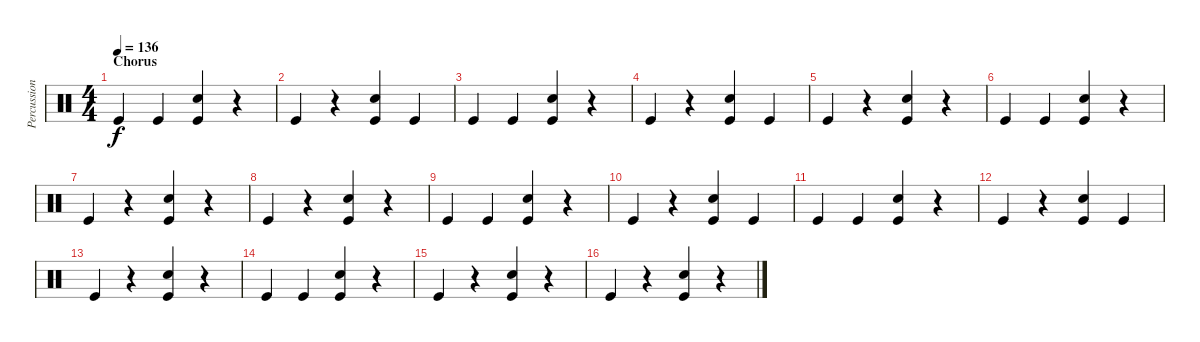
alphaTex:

\track ("Percussion" "Percussion") {instrument percussion}
\staff {score}
\articulation defaults
\ts (4 4)
\section ("" "Chorus")
\tempo 136
\clef neutral
\ks c "Kick (hit)".4{dy f} "Kick (hit)".4
("Kick (hit)" "Electric Snare (hit)").4 r.4 |
"Kick (hit)".4 r.4 ("Kick (hit)" "Electric Snare (hit)").4 "Kick (hit)".4 |
"Kick (hit)".4 "Kick (hit)".4 ("Kick (hit)" "Electric Snare (hit)").4 r.4 |
"Kick (hit)".4 r.4 ("Kick (hit)" "Electric Snare (hit)").4 "Kick (hit)".4 |
"Kick (hit)".4 r.4 ("Kick (hit)" "Electric Snare (hit)").4 r.4 |
"Kick (hit)".4 "Kick (hit)".4 ("Kick (hit)" "Electric Snare (hit)").4 r.4 |
"Kick (hit)".4 r.4 ("Kick (hit)" "Electric Snare (hit)").4 r.4 |
"Kick (hit)".4 r.4 ("Kick (hit)" "Electric Snare (hit)").4 r.4 |
"Kick (hit)".4 "Kick (hit)".4 ("Kick (hit)" "Electric Snare (hit)").4 r.4 |
"Kick (hit)".4 r.4 ("Kick (hit)" "Electric Snare (hit)").4 "Kick (hit)".4 |
"Kick (hit)".4 "Kick (hit)".4 ("Kick (hit)" "Electric Snare (hit)").4 r.4 |
"Kick (hit)".4 r.4 ("Kick (hit)" "Electric Snare (hit)").4 "Kick (hit)".4 |
"Kick (hit)".4 r.4 ("Kick (hit)" "Electric Snare (hit)").4 r.4 |
"Kick (hit)".4 "Kick (hit)".4 ("Kick (hit)" "Electric Snare (hit)").4 r.4 |
"Kick (hit)".4 r.4 ("Kick (hit)" "Electric Snare (hit)").4 r.4 |
"Kick (hit)".4 r.4 ("Kick (hit)" "Electric Snare (hit)").4 r.4
